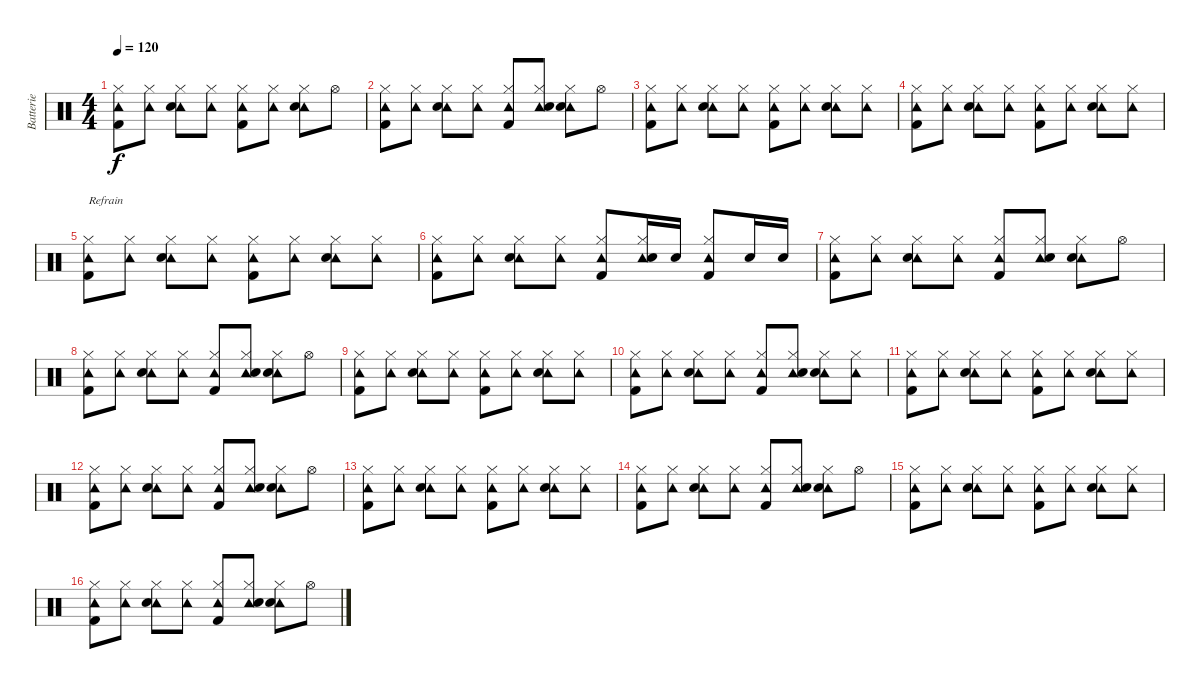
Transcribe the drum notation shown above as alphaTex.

\track ("Batterie" "Batterie") {instrument percussion}
\staff {score}
\articulation defaults
\ts (4 4)
\tempo 120
\clef neutral
\ks c
("Tambourine (hit)" "Hi-Hat (closed)" "Kick (hit) 2").8{dy f} ("Tambourine (hit)" "Hi-Hat (closed)").8 ("Tambourine (hit)" "Hi-Hat (closed)" "Electric Snare (hit)").8 ("Tambourine (hit)" "Hi-Hat (closed)").8 ("Tambourine (hit)" "Hi-Hat (closed)" "Kick (hit) 2").8 ("Tambourine (hit)" "Hi-Hat (closed)").8 ("Tambourine (hit)" "Hi-Hat (closed)" "Electric Snare (hit)").8 "Hi-Hat (open)".8 |
("Tambourine (hit)" "Hi-Hat (closed)" "Kick (hit) 2").8 ("Tambourine (hit)" "Hi-Hat (closed)").8 ("Tambourine (hit)" "Hi-Hat (closed)" "Electric Snare (hit)").8 ("Tambourine (hit)" "Hi-Hat (closed)").8 ("Tambourine (hit)" "Hi-Hat (closed)" "Kick (hit) 2").8 ("Tambourine (hit)" "Hi-Hat (closed)" "Electric Snare (hit)").8 ("Tambourine (hit)" "Hi-Hat (closed)" "Electric Snare (hit)").8 "Hi-Hat (open)".8 |
("Tambourine (hit)" "Hi-Hat (closed)" "Kick (hit) 2").8 ("Tambourine (hit)" "Hi-Hat (closed)").8 ("Tambourine (hit)" "Hi-Hat (closed)" "Electric Snare (hit)").8 ("Tambourine (hit)" "Hi-Hat (closed)").8 ("Tambourine (hit)" "Hi-Hat (closed)" "Kick (hit) 2").8 ("Tambourine (hit)" "Hi-Hat (closed)").8 ("Tambourine (hit)" "Hi-Hat (closed)" "Electric Snare (hit)").8 ("Tambourine (hit)" "Hi-Hat (closed)").8 |
("Tambourine (hit)" "Hi-Hat (closed)" "Kick (hit) 2").8 ("Tambourine (hit)" "Hi-Hat (closed)").8 ("Tambourine (hit)" "Hi-Hat (closed)" "Electric Snare (hit)").8 ("Tambourine (hit)" "Hi-Hat (closed)").8 ("Tambourine (hit)" "Hi-Hat (closed)" "Kick (hit) 2").8 ("Tambourine (hit)" "Hi-Hat (closed)").8 ("Tambourine (hit)" "Hi-Hat (closed)" "Electric Snare (hit)").8 ("Tambourine (hit)" "Hi-Hat (closed)").8 |
("Tambourine (hit)" "Hi-Hat (closed)" "Kick (hit) 2").8{txt "Refrain"} ("Tambourine (hit)" "Hi-Hat (closed)").8 ("Tambourine (hit)" "Hi-Hat (closed)" "Electric Snare (hit)").8 ("Tambourine (hit)" "Hi-Hat (closed)").8 ("Tambourine (hit)" "Hi-Hat (closed)" "Kick (hit) 2").8 ("Tambourine (hit)" "Hi-Hat (closed)").8 ("Tambourine (hit)" "Hi-Hat (closed)" "Electric Snare (hit)").8 ("Tambourine (hit)" "Hi-Hat (closed)").8 |
("Tambourine (hit)" "Hi-Hat (closed)" "Kick (hit) 2").8 ("Tambourine (hit)" "Hi-Hat (closed)").8 ("Tambourine (hit)" "Hi-Hat (closed)" "Electric Snare (hit)").8 ("Tambourine (hit)" "Hi-Hat (closed)").8 ("Tambourine (hit)" "Hi-Hat (closed)" "Kick (hit) 2").8 ("Tambourine (hit)" "Hi-Hat (closed)" "Electric Snare (hit)").16 "Electric Snare (hit)".16 ("Tambourine (hit)" "Hi-Hat (closed)" "Kick (hit) 2").8 "Electric Snare (hit)".16 "Electric Snare (hit)".16 |
("Tambourine (hit)" "Hi-Hat (closed)" "Kick (hit) 2").8 ("Tambourine (hit)" "Hi-Hat (closed)").8 ("Tambourine (hit)" "Hi-Hat (closed)" "Electric Snare (hit)").8 ("Tambourine (hit)" "Hi-Hat (closed)").8 ("Tambourine (hit)" "Hi-Hat (closed)" "Kick (hit) 2").8 ("Tambourine (hit)" "Hi-Hat (closed)" "Electric Snare (hit)").8 ("Tambourine (hit)" "Hi-Hat (closed)" "Electric Snare (hit)").8 "Hi-Hat (open)".8 |
("Tambourine (hit)" "Hi-Hat (closed)" "Kick (hit) 2").8 ("Tambourine (hit)" "Hi-Hat (closed)").8 ("Tambourine (hit)" "Hi-Hat (closed)" "Electric Snare (hit)").8 ("Tambourine (hit)" "Hi-Hat (closed)").8 ("Tambourine (hit)" "Hi-Hat (closed)" "Kick (hit) 2").8 ("Tambourine (hit)" "Hi-Hat (closed)" "Electric Snare (hit)").8 ("Tambourine (hit)" "Hi-Hat (closed)" "Electric Snare (hit)").8 "Hi-Hat (open)".8 |
("Tambourine (hit)" "Hi-Hat (closed)" "Kick (hit) 2").8 ("Tambourine (hit)" "Hi-Hat (closed)").8 ("Tambourine (hit)" "Hi-Hat (closed)" "Electric Snare (hit)").8 ("Tambourine (hit)" "Hi-Hat (closed)").8 ("Tambourine (hit)" "Hi-Hat (closed)" "Kick (hit) 2").8 ("Tambourine (hit)" "Hi-Hat (closed)").8 ("Tambourine (hit)" "Hi-Hat (closed)" "Electric Snare (hit)").8 ("Tambourine (hit)" "Hi-Hat (closed)").8 |
("Tambourine (hit)" "Hi-Hat (closed)" "Kick (hit) 2").8 ("Tambourine (hit)" "Hi-Hat (closed)").8 ("Tambourine (hit)" "Hi-Hat (closed)" "Electric Snare (hit)").8 ("Tambourine (hit)" "Hi-Hat (closed)").8 ("Tambourine (hit)" "Hi-Hat (closed)" "Kick (hit) 2").8 ("Tambourine (hit)" "Hi-Hat (closed)" "Electric Snare (hit)").8 ("Tambourine (hit)" "Hi-Hat (closed)" "Electric Snare (hit)").8 ("Tambourine (hit)" "Hi-Hat (closed)").8 |
("Tambourine (hit)" "Hi-Hat (closed)" "Kick (hit) 2").8 ("Tambourine (hit)" "Hi-Hat (closed)").8 ("Tambourine (hit)" "Hi-Hat (closed)" "Electric Snare (hit)").8 ("Tambourine (hit)" "Hi-Hat (closed)").8 ("Tambourine (hit)" "Hi-Hat (closed)" "Kick (hit) 2").8 ("Tambourine (hit)" "Hi-Hat (closed)").8 ("Tambourine (hit)" "Hi-Hat (closed)" "Electric Snare (hit)").8 ("Tambourine (hit)" "Hi-Hat (closed)").8 |
("Tambourine (hit)" "Hi-Hat (closed)" "Kick (hit) 2").8 ("Tambourine (hit)" "Hi-Hat (closed)").8 ("Tambourine (hit)" "Hi-Hat (closed)" "Electric Snare (hit)").8 ("Tambourine (hit)" "Hi-Hat (closed)").8 ("Tambourine (hit)" "Hi-Hat (closed)" "Kick (hit) 2").8 ("Tambourine (hit)" "Hi-Hat (closed)" "Electric Snare (hit)").8 ("Tambourine (hit)" "Hi-Hat (closed)" "Electric Snare (hit)").8 "Hi-Hat (open)".8 |
("Tambourine (hit)" "Hi-Hat (closed)" "Kick (hit) 2").8 ("Tambourine (hit)" "Hi-Hat (closed)").8 ("Tambourine (hit)" "Hi-Hat (closed)" "Electric Snare (hit)").8 ("Tambourine (hit)" "Hi-Hat (closed)").8 ("Tambourine (hit)" "Hi-Hat (closed)" "Kick (hit) 2").8 ("Tambourine (hit)" "Hi-Hat (closed)").8 ("Tambourine (hit)" "Hi-Hat (closed)" "Electric Snare (hit)").8 ("Tambourine (hit)" "Hi-Hat (closed)").8 |
("Tambourine (hit)" "Hi-Hat (closed)" "Kick (hit) 2").8 ("Tambourine (hit)" "Hi-Hat (closed)").8 ("Tambourine (hit)" "Hi-Hat (closed)" "Electric Snare (hit)").8 ("Tambourine (hit)" "Hi-Hat (closed)").8 ("Tambourine (hit)" "Hi-Hat (closed)" "Kick (hit) 2").8 ("Tambourine (hit)" "Hi-Hat (closed)" "Electric Snare (hit)").8 ("Tambourine (hit)" "Hi-Hat (closed)" "Electric Snare (hit)").8 "Hi-Hat (open)".8 |
("Tambourine (hit)" "Hi-Hat (closed)" "Kick (hit) 2").8 ("Tambourine (hit)" "Hi-Hat (closed)").8 ("Tambourine (hit)" "Hi-Hat (closed)" "Electric Snare (hit)").8 ("Tambourine (hit)" "Hi-Hat (closed)").8 ("Tambourine (hit)" "Hi-Hat (closed)" "Kick (hit) 2").8 ("Tambourine (hit)" "Hi-Hat (closed)").8 ("Tambourine (hit)" "Hi-Hat (closed)" "Electric Snare (hit)").8 ("Tambourine (hit)" "Hi-Hat (closed)").8 |
("Tambourine (hit)" "Hi-Hat (closed)" "Kick (hit) 2").8 ("Tambourine (hit)" "Hi-Hat (closed)").8 ("Tambourine (hit)" "Hi-Hat (closed)" "Electric Snare (hit)").8 ("Tambourine (hit)" "Hi-Hat (closed)").8 ("Tambourine (hit)" "Hi-Hat (closed)" "Kick (hit) 2").8 ("Tambourine (hit)" "Hi-Hat (closed)" "Electric Snare (hit)").8 ("Tambourine (hit)" "Hi-Hat (closed)" "Electric Snare (hit)").8 "Hi-Hat (open)".8
